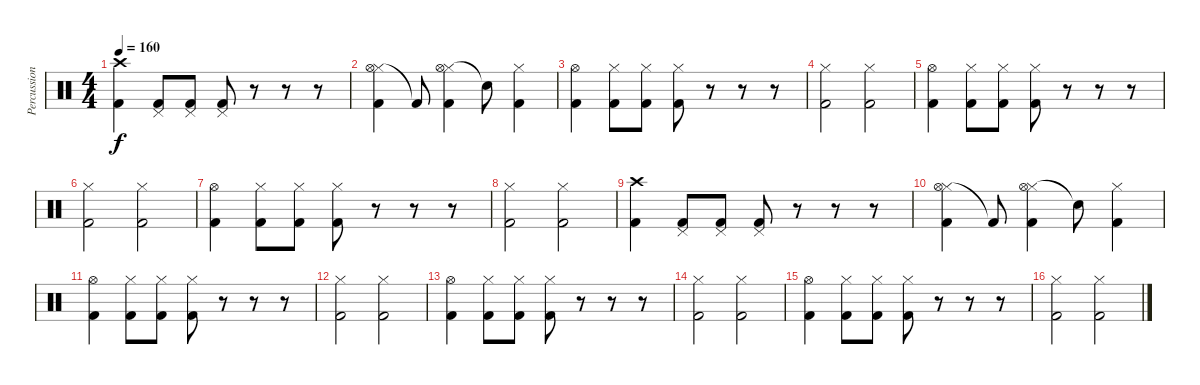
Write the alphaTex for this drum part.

\track ("Percussion" "Percussion") {instrument percussion}
\staff {score}
\articulation defaults
\ts (4 4)
\tempo 160
\clef neutral
\ks c
("Crash high (hit)" "Kick (hit) 2").4{dy f} ("Pedal Hi-Hat (hit)" "Kick (hit) 2").8 ("Pedal Hi-Hat (hit)" "Kick (hit) 2").8 ("Pedal Hi-Hat (hit)" "Kick (hit) 2").8 r.8 r.8 r.8 |
("Hi-Hat (closed)" "Hi-Hat (open)" "Kick (hit) 2").4 "Kick (hit) 2"{t}.8 ("Hi-Hat (closed)" "Hi-Hat (open)" "Kick (hit) 2").4 "Snare (hit)"{t}.8 ("Hi-Hat (closed)" "Kick (hit) 2").4 |
("Hi-Hat (open)" "Kick (hit) 2").4 ("Hi-Hat (closed)" "Kick (hit) 2").8 ("Hi-Hat (closed)" "Kick (hit) 2").8 ("Hi-Hat (closed)" "Kick (hit) 2").8 r.8 r.8 r.8 |
("Hi-Hat (closed)" "Kick (hit) 2").2 ("Hi-Hat (closed)" "Kick (hit) 2").2 |
("Hi-Hat (open)" "Kick (hit) 2").4 ("Hi-Hat (closed)" "Kick (hit) 2").8 ("Hi-Hat (closed)" "Kick (hit) 2").8 ("Hi-Hat (closed)" "Kick (hit) 2").8 r.8 r.8 r.8 |
("Hi-Hat (closed)" "Kick (hit) 2").2 ("Hi-Hat (closed)" "Kick (hit) 2").2 |
("Hi-Hat (open)" "Kick (hit) 2").4 ("Hi-Hat (closed)" "Kick (hit) 2").8 ("Hi-Hat (closed)" "Kick (hit) 2").8 ("Hi-Hat (closed)" "Kick (hit) 2").8 r.8 r.8 r.8 |
("Hi-Hat (closed)" "Kick (hit) 2").2 ("Hi-Hat (closed)" "Kick (hit) 2").2 |
("Crash high (hit)" "Kick (hit) 2").4 ("Pedal Hi-Hat (hit)" "Kick (hit) 2").8 ("Pedal Hi-Hat (hit)" "Kick (hit) 2").8 ("Pedal Hi-Hat (hit)" "Kick (hit) 2").8 r.8 r.8 r.8 |
("Hi-Hat (closed)" "Hi-Hat (open)" "Kick (hit) 2").4 "Kick (hit) 2"{t}.8 ("Hi-Hat (closed)" "Hi-Hat (open)" "Kick (hit) 2").4 "Snare (hit)"{t}.8 ("Hi-Hat (closed)" "Kick (hit) 2").4 |
("Hi-Hat (open)" "Kick (hit) 2").4 ("Hi-Hat (closed)" "Kick (hit) 2").8 ("Hi-Hat (closed)" "Kick (hit) 2").8 ("Hi-Hat (closed)" "Kick (hit) 2").8 r.8 r.8 r.8 |
("Hi-Hat (closed)" "Kick (hit) 2").2 ("Hi-Hat (closed)" "Kick (hit) 2").2 |
("Hi-Hat (open)" "Kick (hit) 2").4 ("Hi-Hat (closed)" "Kick (hit) 2").8 ("Hi-Hat (closed)" "Kick (hit) 2").8 ("Hi-Hat (closed)" "Kick (hit) 2").8 r.8 r.8 r.8 |
("Hi-Hat (closed)" "Kick (hit) 2").2 ("Hi-Hat (closed)" "Kick (hit) 2").2 |
("Hi-Hat (open)" "Kick (hit) 2").4 ("Hi-Hat (closed)" "Kick (hit) 2").8 ("Hi-Hat (closed)" "Kick (hit) 2").8 ("Hi-Hat (closed)" "Kick (hit) 2").8 r.8 r.8 r.8 |
("Hi-Hat (closed)" "Kick (hit) 2").2 ("Hi-Hat (closed)" "Kick (hit) 2").2
